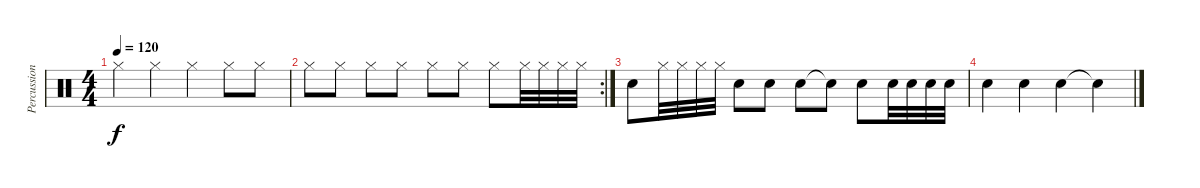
\track ("Percussions" "Percussion") {instrument percussion}
\staff {score}
\articulation defaults
\ts (4 4)
\tempo 120
\clef neutral
\ks c "Hi-Hat (closed)".4{dy f} "Hi-Hat (closed)".4 "Hi-Hat (closed)".4 "Hi-Hat (closed)".8 "Hi-Hat (closed)".8
|
\rc 2 "Hi-Hat (closed)".8 "Hi-Hat (closed)".8 "Hi-Hat (closed)".8 "Hi-Hat (closed)".8 "Hi-Hat (closed)".8 "Hi-Hat (closed)".8 "Hi-Hat (closed)".8 "Hi-Hat (closed)".32 "Hi-Hat (closed)".32 "Hi-Hat (closed)".32 "Hi-Hat (closed)".32
|
"Snare (hit) 2".8 "Hi-Hat (closed)".32 "Hi-Hat (closed)".32 "Hi-Hat (closed)".32 "Hi-Hat (closed)".32 "Snare (hit) 2".8 "Snare (hit) 2".8 "Snare (hit) 2".8 "Snare (hit)"{t}.8 "Snare (hit) 2".8 "Snare (hit) 2".32 "Snare (hit) 2".32 "Snare (hit) 2".32 "Snare (hit) 2".32 |
"Snare (hit) 2".4 "Snare (hit) 2".4 "Snare (hit) 2".4 "Snare (hit)"{t}.4
